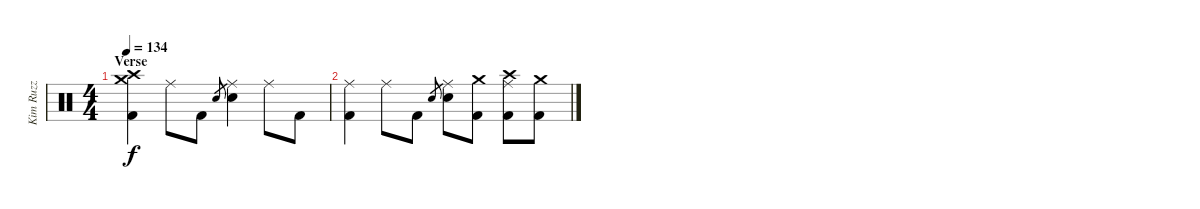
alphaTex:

\track ("Kim Ruzz" "Kim Ruzz") {instrument percussion}
\staff {score}
\articulation defaults
\ts (4 4)
\section ("" "Verse")
\tempo 134
\clef neutral
\ks c
("Crash medium (hit)" "Crash high (hit)" "Kick (hit) 2").4{dy f} "Ride (middle)".8 "Kick (hit) 2".8 "Snare (hit) 2".8{gr} ("Ride (middle)" "Snare (hit) 2").4 "Ride (middle)".8 "Kick (hit) 2".8 |
("Ride (middle)" "Kick (hit) 2").4 "Ride (middle)".8 "Kick (hit) 2".8 "Snare (hit) 2".8{gr} ("Ride (middle)" "Snare (hit) 2").8 ("Crash medium (hit)" "Kick (hit) 2").8 ("Crash high (hit)" "Ride (middle)" "Kick (hit) 2").8 ("Crash medium (hit)" "Kick (hit) 2").8
